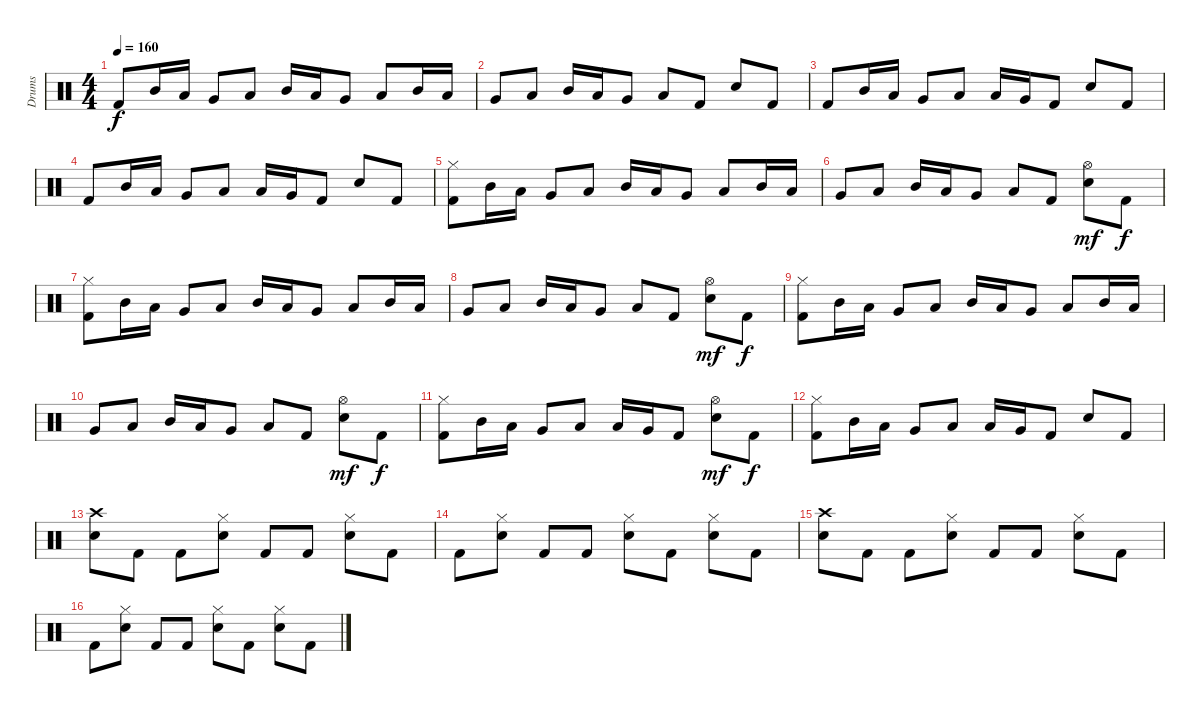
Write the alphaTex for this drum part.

\track ("Drums" "Drums") {instrument percussion}
\staff {score}
\articulation defaults
\ts (4 4)
\tempo 160
\clef neutral
\ks c "Kick (hit) 2".8{dy f} "Mid Tom (hit)".16 "Low Tom (hit)".16 "Very Low Tom (hit)".8 "Low Floor Tom (hit)".8 "Mid Tom (hit)".16 "Low Tom (hit)".16 "Very Low Tom (hit)".8 "Low Floor Tom (hit)".8 "Mid Tom (hit)".16 "Low Tom (hit)".16
|
"Very Low Tom (hit)".8 "Low Floor Tom (hit)".8 "Mid Tom (hit)".16 "Low Tom (hit)".16 "Very Low Tom (hit)".8 "Low Floor Tom (hit)".8 "Kick (hit) 2".8 "Electric Snare (hit)".8 "Kick (hit) 2".8 |
"Kick (hit) 2".8 "Mid Tom (hit)".16 "Low Tom (hit)".16 "Very Low Tom (hit)".8 "Low Floor Tom (hit)".8 "Low Tom (hit)".16 "Very Low Tom (hit)".16 "Kick (hit) 2".8 "Electric Snare (hit)".8 "Kick (hit) 2".8 |
"Kick (hit) 2".8 "Mid Tom (hit)".16 "Low Tom (hit)".16 "Very Low Tom (hit)".8 "Low Floor Tom (hit)".8 "Low Tom (hit)".16 "Very Low Tom (hit)".16 "Kick (hit) 2".8 "Electric Snare (hit)".8 "Kick (hit) 2".8 |
("Kick (hit) 2" "Hi-Hat (closed)").8 "Mid Tom (hit)".16 "Low Tom (hit)".16 "Very Low Tom (hit)".8 "Low Floor Tom (hit)".8 "Mid Tom (hit)".16 "Low Tom (hit)".16 "Very Low Tom (hit)".8 "Low Floor Tom (hit)".8 "Mid Tom (hit)".16 "Low Tom (hit)".16 |
"Very Low Tom (hit)".8 "Low Floor Tom (hit)".8 "Mid Tom (hit)".16 "Low Tom (hit)".16 "Very Low Tom (hit)".8 "Low Floor Tom (hit)".8 "Kick (hit) 2".8 ("Hi-Hat (open)" "Electric Snare (hit)").8{dy mf} "Kick (hit) 2".8{dy f} |
("Kick (hit) 2" "Hi-Hat (closed)").8 "Mid Tom (hit)".16 "Low Tom (hit)".16 "Very Low Tom (hit)".8 "Low Floor Tom (hit)".8 "Mid Tom (hit)".16 "Low Tom (hit)".16 "Very Low Tom (hit)".8 "Low Floor Tom (hit)".8 "Mid Tom (hit)".16 "Low Tom (hit)".16 |
"Very Low Tom (hit)".8 "Low Floor Tom (hit)".8 "Mid Tom (hit)".16 "Low Tom (hit)".16 "Very Low Tom (hit)".8 "Low Floor Tom (hit)".8 "Kick (hit) 2".8 ("Hi-Hat (open)" "Electric Snare (hit)").8{dy mf} "Kick (hit) 2".8{dy f} |
("Kick (hit) 2" "Hi-Hat (closed)").8 "Mid Tom (hit)".16 "Low Tom (hit)".16 "Very Low Tom (hit)".8 "Low Floor Tom (hit)".8 "Mid Tom (hit)".16 "Low Tom (hit)".16 "Very Low Tom (hit)".8 "Low Floor Tom (hit)".8 "Mid Tom (hit)".16 "Low Tom (hit)".16 |
"Very Low Tom (hit)".8 "Low Floor Tom (hit)".8 "Mid Tom (hit)".16 "Low Tom (hit)".16 "Very Low Tom (hit)".8 "Low Floor Tom (hit)".8 "Kick (hit) 2".8 ("Hi-Hat (open)" "Electric Snare (hit)").8{dy mf} "Kick (hit) 2".8{dy f} |
("Kick (hit) 2" "Hi-Hat (closed)").8 "Mid Tom (hit)".16 "Low Tom (hit)".16 "Very Low Tom (hit)".8 "Low Floor Tom (hit)".8 "Low Tom (hit)".16 "Very Low Tom (hit)".16 "Kick (hit) 2".8 ("Hi-Hat (open)" "Electric Snare (hit)").8{dy mf} "Kick (hit) 2".8{dy f} |
("Kick (hit) 2" "Hi-Hat (closed)").8 "Mid Tom (hit)".16 "Low Tom (hit)".16 "Very Low Tom (hit)".8 "Low Floor Tom (hit)".8 "Low Tom (hit)".16 "Very Low Tom (hit)".16 "Kick (hit) 2".8 "Electric Snare (hit)".8 "Kick (hit) 2".8 |
("Crash high (hit)" "Electric Snare (hit)").8 "Kick (hit) 2".8 "Kick (hit) 2".8 ("Hi-Hat (closed)" "Electric Snare (hit)").8 "Kick (hit) 2".8 "Kick (hit) 2".8 ("Hi-Hat (closed)" "Electric Snare (hit)").8 "Kick (hit) 2".8 |
"Kick (hit) 2".8 ("Hi-Hat (closed)" "Electric Snare (hit)").8 "Kick (hit) 2".8 "Kick (hit) 2".8 ("Hi-Hat (closed)" "Electric Snare (hit)").8 "Kick (hit) 2".8 ("Hi-Hat (closed)" "Electric Snare (hit)").8 "Kick (hit) 2".8 |
("Crash high (hit)" "Electric Snare (hit)").8 "Kick (hit) 2".8 "Kick (hit) 2".8 ("Hi-Hat (closed)" "Electric Snare (hit)").8 "Kick (hit) 2".8 "Kick (hit) 2".8 ("Hi-Hat (closed)" "Electric Snare (hit)").8 "Kick (hit) 2".8 |
"Kick (hit) 2".8 ("Hi-Hat (closed)" "Electric Snare (hit)").8 "Kick (hit) 2".8 "Kick (hit) 2".8 ("Hi-Hat (closed)" "Electric Snare (hit)").8 "Kick (hit) 2".8 ("Hi-Hat (closed)" "Electric Snare (hit)").8 "Kick (hit) 2".8
